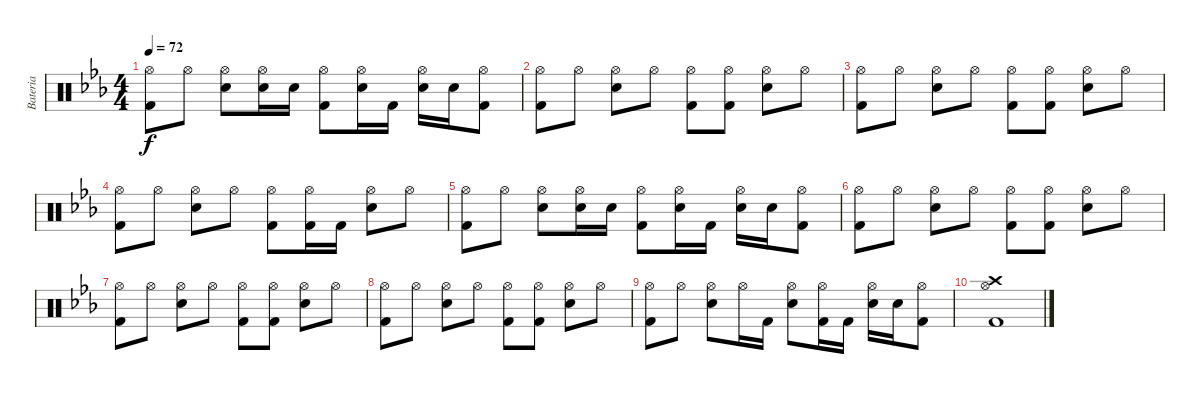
\track ("Bateria" "Bateria") {instrument percussion}
\staff {score}
\articulation defaults
\ts (4 4)
\tempo 72
\clef neutral
\ks eb
("Hi-Hat (open)" "Kick (hit) 2").8{dy f} "Hi-Hat (open)".8 ("Hi-Hat (open)" "Electric Snare (hit)").8 ("Hi-Hat (open)" "Electric Snare (hit)").16 "Electric Snare (hit)".16 ("Hi-Hat (open)" "Kick (hit) 2").8 ("Hi-Hat (open)" "Electric Snare (hit)").16 "Kick (hit) 2".16 ("Electric Snare (hit)" "Hi-Hat (open)").16 "Electric Snare (hit)".16 ("Kick (hit) 2" "Hi-Hat (open)").8 |
("Hi-Hat (open)" "Kick (hit) 2").8 "Hi-Hat (open)".8 ("Hi-Hat (open)" "Electric Snare (hit)").8 "Hi-Hat (open)".8 ("Hi-Hat (open)" "Kick (hit) 2").8 ("Hi-Hat (open)" "Kick (hit) 2").8 ("Hi-Hat (open)" "Electric Snare (hit)").8 "Hi-Hat (open)".8 |
("Hi-Hat (open)" "Kick (hit) 2").8 "Hi-Hat (open)".8 ("Hi-Hat (open)" "Electric Snare (hit)").8 "Hi-Hat (open)".8 ("Hi-Hat (open)" "Kick (hit) 2").8 ("Hi-Hat (open)" "Kick (hit) 2").8 ("Hi-Hat (open)" "Electric Snare (hit)").8 "Hi-Hat (open)".8 |
("Hi-Hat (open)" "Kick (hit) 2").8 "Hi-Hat (open)".8 ("Hi-Hat (open)" "Electric Snare (hit)").8 "Hi-Hat (open)".8 ("Hi-Hat (open)" "Kick (hit) 2").8 ("Hi-Hat (open)" "Kick (hit) 2").16 "Kick (hit) 2".16 ("Hi-Hat (open)" "Electric Snare (hit)").8 "Hi-Hat (open)".8 |
("Hi-Hat (open)" "Kick (hit) 2").8 "Hi-Hat (open)".8 ("Hi-Hat (open)" "Electric Snare (hit)").8 ("Hi-Hat (open)" "Electric Snare (hit)").16 "Electric Snare (hit)".16 ("Hi-Hat (open)" "Kick (hit) 2").8 ("Hi-Hat (open)" "Electric Snare (hit)").16 "Kick (hit) 2".16 ("Electric Snare (hit)" "Hi-Hat (open)").16 "Electric Snare (hit)".16 ("Kick (hit) 2" "Hi-Hat (open)").8 |
("Hi-Hat (open)" "Kick (hit) 2").8 "Hi-Hat (open)".8 ("Hi-Hat (open)" "Electric Snare (hit)").8 "Hi-Hat (open)".8 ("Hi-Hat (open)" "Kick (hit) 2").8 ("Hi-Hat (open)" "Kick (hit) 2").8 ("Hi-Hat (open)" "Electric Snare (hit)").8 "Hi-Hat (open)".8 |
("Hi-Hat (open)" "Kick (hit) 2").8 "Hi-Hat (open)".8 ("Hi-Hat (open)" "Electric Snare (hit)").8 "Hi-Hat (open)".8 ("Hi-Hat (open)" "Kick (hit) 2").8 ("Hi-Hat (open)" "Kick (hit) 2").8 ("Hi-Hat (open)" "Electric Snare (hit)").8 "Hi-Hat (open)".8 |
("Hi-Hat (open)" "Kick (hit) 2").8 "Hi-Hat (open)".8 ("Hi-Hat (open)" "Electric Snare (hit)").8 "Hi-Hat (open)".8 ("Hi-Hat (open)" "Kick (hit) 2").8 ("Hi-Hat (open)" "Kick (hit) 2").8 ("Hi-Hat (open)" "Electric Snare (hit)").8 "Hi-Hat (open)".8 |
("Hi-Hat (open)" "Kick (hit) 2").8 "Hi-Hat (open)".8 ("Hi-Hat (open)" "Electric Snare (hit)").8 "Hi-Hat (open)".16 "Kick (hit) 2".16 ("Electric Snare (hit)" "Hi-Hat (open)").8 ("Kick (hit) 2" "Hi-Hat (open)").16 "Kick (hit) 2".16 ("Electric Snare (hit)" "Hi-Hat (open)").16 "Electric Snare (hit)".16 ("Kick (hit) 2" "Hi-Hat (open)").8 |
("Kick (hit) 2" "Hi-Hat (open)" "Crash high (hit)").1
